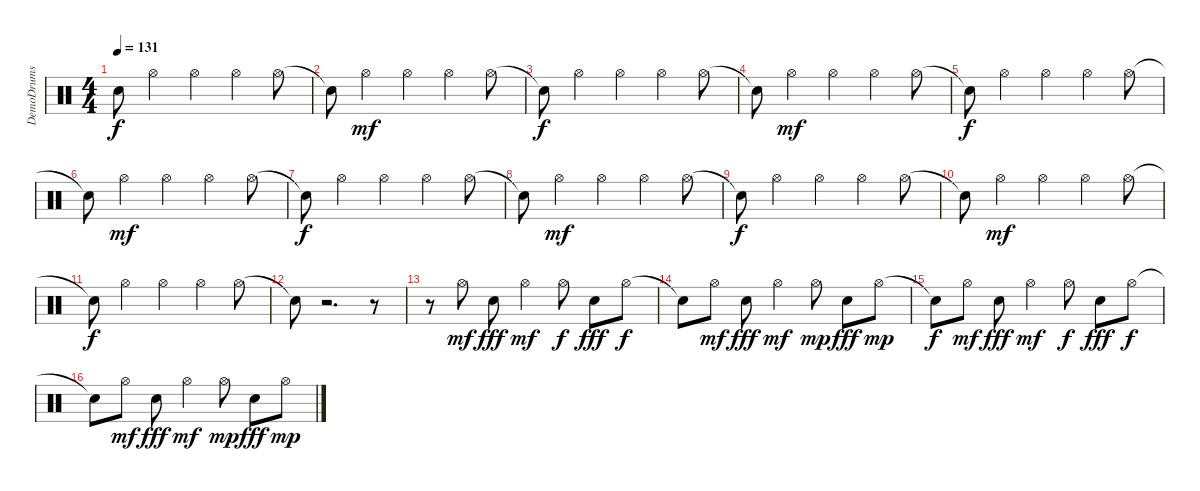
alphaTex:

\track ("DemoDrums" "DemoDrums") {instrument percussion}
\staff {score}
\articulation defaults
\ts (4 4)
\tempo 131
\clef neutral
\ks c "Snare (hit)"{t}.8{dy f} "Hi-Hat (open)".4 "Hi-Hat (open)".4 "Hi-Hat (open)".4 "Hi-Hat (open)".8
|
"Snare (hit)"{t}.8 "Hi-Hat (open)".4{dy mf} "Hi-Hat (open)".4 "Hi-Hat (open)".4 "Hi-Hat (open)".8 |
"Snare (hit)"{t}.8{dy f} "Hi-Hat (open)".4 "Hi-Hat (open)".4 "Hi-Hat (open)".4 "Hi-Hat (open)".8 |
"Snare (hit)"{t}.8 "Hi-Hat (open)".4{dy mf} "Hi-Hat (open)".4 "Hi-Hat (open)".4 "Hi-Hat (open)".8 |
"Snare (hit)"{t}.8{dy f} "Hi-Hat (open)".4 "Hi-Hat (open)".4 "Hi-Hat (open)".4 "Hi-Hat (open)".8 |
"Snare (hit)"{t}.8 "Hi-Hat (open)".4{dy mf} "Hi-Hat (open)".4 "Hi-Hat (open)".4 "Hi-Hat (open)".8 |
"Snare (hit)"{t}.8{dy f} "Hi-Hat (open)".4 "Hi-Hat (open)".4 "Hi-Hat (open)".4 "Hi-Hat (open)".8 |
"Snare (hit)"{t}.8 "Hi-Hat (open)".4{dy mf} "Hi-Hat (open)".4 "Hi-Hat (open)".4 "Hi-Hat (open)".8 |
"Snare (hit)"{t}.8{dy f} "Hi-Hat (open)".4 "Hi-Hat (open)".4 "Hi-Hat (open)".4 "Hi-Hat (open)".8 |
"Snare (hit)"{t}.8 "Hi-Hat (open)".4{dy mf} "Hi-Hat (open)".4 "Hi-Hat (open)".4 "Hi-Hat (open)".8 |
"Snare (hit)"{t}.8{dy f} "Hi-Hat (open)".4 "Hi-Hat (open)".4 "Hi-Hat (open)".4 "Hi-Hat (open)".8 |
"Snare (hit)"{t}.8 r.2{d} r.8 |
r.8 "Hi-Hat (open)".8{dy mf} "Electric Snare (hit)".8{dy fff} "Hi-Hat (open)".4{dy mf} "Hi-Hat (open)".8{dy f} "Electric Snare (hit)".8{dy fff} "Hi-Hat (open)".8{dy f} |
"Snare (hit)"{t}.8 "Hi-Hat (open)".8{dy mf} "Electric Snare (hit)".8{dy fff} "Hi-Hat (open)".4{dy mf} "Hi-Hat (open)".8{dy mp} "Electric Snare (hit)".8{dy fff} "Hi-Hat (open)".8{dy mp} |
"Snare (hit)"{t}.8{dy f} "Hi-Hat (open)".8{dy mf} "Electric Snare (hit)".8{dy fff} "Hi-Hat (open)".4{dy mf} "Hi-Hat (open)".8{dy f} "Electric Snare (hit)".8{dy fff} "Hi-Hat (open)".8{dy f} |
"Snare (hit)"{t}.8 "Hi-Hat (open)".8{dy mf} "Electric Snare (hit)".8{dy fff} "Hi-Hat (open)".4{dy mf} "Hi-Hat (open)".8{dy mp} "Electric Snare (hit)".8{dy fff} "Hi-Hat (open)".8{dy mp}
